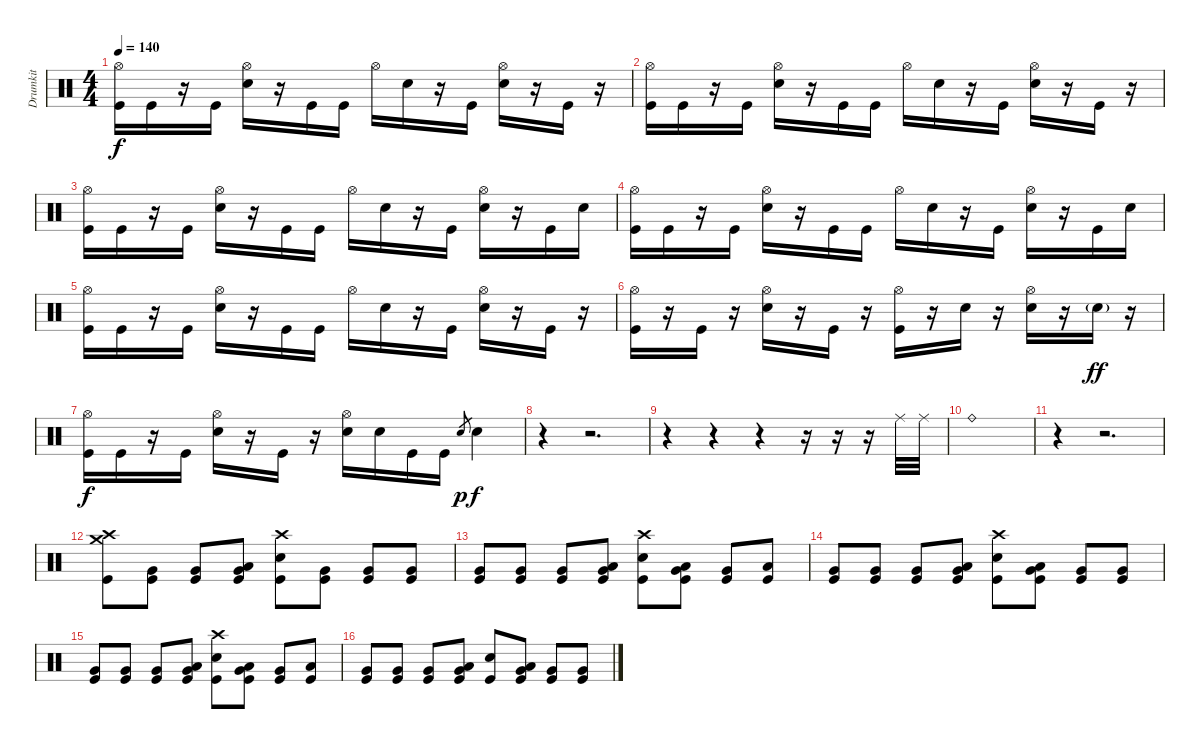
\track ("Drumkit" "Drumkit") {instrument percussion}
\staff {score}
\articulation defaults
\ts (4 4)
\tempo 140
\clef neutral
\ks c
("Hi-Hat (open)" "Kick (hit)").16{dy f} "Kick (hit)".16 r.16 "Kick (hit)".16 ("Hi-Hat (open)" "Snare (hit) 2").16 r.16 "Kick (hit)".16 "Kick (hit)".16 "Hi-Hat (open)".16 "Snare (hit) 2".16 r.16 "Kick (hit)".16 ("Hi-Hat (open)" "Snare (hit) 2").16 r.16 "Kick (hit)".16 r.16 |
("Hi-Hat (open)" "Kick (hit)").16 "Kick (hit)".16 r.16 "Kick (hit)".16 ("Hi-Hat (open)" "Snare (hit) 2").16 r.16 "Kick (hit)".16 "Kick (hit)".16 "Hi-Hat (open)".16 "Snare (hit) 2".16 r.16 "Kick (hit)".16 ("Hi-Hat (open)" "Snare (hit) 2").16 r.16 "Kick (hit)".16 r.16 |
("Hi-Hat (open)" "Kick (hit)").16 "Kick (hit)".16 r.16 "Kick (hit)".16 ("Hi-Hat (open)" "Snare (hit) 2").16 r.16 "Kick (hit)".16 "Kick (hit)".16 "Hi-Hat (open)".16 "Snare (hit) 2".16 r.16 "Kick (hit)".16 ("Hi-Hat (open)" "Snare (hit) 2").16 r.16 "Kick (hit)".16 "Snare (hit) 2".16 |
("Hi-Hat (open)" "Kick (hit)").16 "Kick (hit)".16 r.16 "Kick (hit)".16 ("Hi-Hat (open)" "Snare (hit) 2").16 r.16 "Kick (hit)".16 "Kick (hit)".16 "Hi-Hat (open)".16 "Snare (hit) 2".16 r.16 "Kick (hit)".16 ("Hi-Hat (open)" "Snare (hit) 2").16 r.16 "Kick (hit)".16 "Snare (hit) 2".16 |
("Hi-Hat (open)" "Kick (hit)").16 "Kick (hit)".16 r.16 "Kick (hit)".16 ("Hi-Hat (open)" "Snare (hit) 2").16 r.16 "Kick (hit)".16 "Kick (hit)".16 "Hi-Hat (open)".16 "Snare (hit) 2".16 r.16 "Kick (hit)".16 ("Hi-Hat (open)" "Snare (hit) 2").16 r.16 "Kick (hit)".16 r.16 |
("Hi-Hat (open)" "Kick (hit)").16 r.16 "Kick (hit)".16 r.16 ("Hi-Hat (open)" "Snare (hit) 2").16 r.16 "Kick (hit)".16 r.16 ("Hi-Hat (open)" "Kick (hit)").16 r.16 "Snare (hit) 2".16 r.16 ("Hi-Hat (open)" "Snare (hit) 2").16 r.16 "Snare (hit) 2"{g}.16{dy ff} r.16 |
("Hi-Hat (open)" "Kick (hit)").16{dy f} "Kick (hit)".16 r.16 "Kick (hit)".16 ("Hi-Hat (open)" "Snare (hit) 2").16 r.16 "Kick (hit)".16 r.16 ("Hi-Hat (open)" "Snare (hit) 2").16 "Snare (hit) 2".16 "Kick (hit)".16 "Kick (hit)".16 "Snare (hit)".8{gr dy p} "Snare (hit) 2".4{dy f} |
r.4 r.2{d} |
r.4 r.4 r.4 r.16 r.16 r.16 "Ride (middle)".32 "Ride (middle)".32 |
"Ride (bell)".1 |
r.4 r.2{d} |
("Crash high (hit)" "Crash medium (hit)" "Kick (hit)").8 ("Very Low Tom (hit)" "Kick (hit)").8 ("Very Low Tom (hit)" "Kick (hit)").8 ("Low Tom (hit)" "Very Low Tom (hit)" "Kick (hit)").8 ("Crash high (hit)" "Snare (hit) 2" "Kick (hit)").8 ("Very Low Tom (hit)" "Kick (hit)").8 ("Very Low Tom (hit)" "Kick (hit)").8 ("Very Low Tom (hit)" "Kick (hit)").8 |
("Very Low Tom (hit)" "Kick (hit)").8 ("Very Low Tom (hit)" "Kick (hit)").8 ("Very Low Tom (hit)" "Kick (hit)").8 ("Low Tom (hit)" "Very Low Tom (hit)" "Kick (hit)").8 ("Crash high (hit)" "Snare (hit) 2" "Kick (hit)").8 ("Low Tom (hit)" "Very Low Tom (hit)" "Kick (hit)").8 ("Very Low Tom (hit)" "Kick (hit)").8 ("Low Tom (hit)" "Kick (hit)").8 |
("Very Low Tom (hit)" "Kick (hit)").8 ("Very Low Tom (hit)" "Kick (hit)").8 ("Very Low Tom (hit)" "Kick (hit)").8 ("Low Tom (hit)" "Very Low Tom (hit)" "Kick (hit)").8 ("Crash high (hit)" "Snare (hit) 2" "Kick (hit)").8 ("Low Tom (hit)" "Very Low Tom (hit)" "Kick (hit)").8 ("Very Low Tom (hit)" "Kick (hit)").8 ("Very Low Tom (hit)" "Kick (hit)").8 |
("Very Low Tom (hit)" "Kick (hit)").8 ("Very Low Tom (hit)" "Kick (hit)").8 ("Very Low Tom (hit)" "Kick (hit)").8 ("Low Tom (hit)" "Very Low Tom (hit)" "Kick (hit)").8 ("Crash high (hit)" "Snare (hit) 2" "Kick (hit)").8 ("Low Tom (hit)" "Very Low Tom (hit)" "Kick (hit)").8 ("Very Low Tom (hit)" "Kick (hit)").8 ("Low Tom (hit)" "Kick (hit)").8 |
("Very Low Tom (hit)" "Kick (hit)").8 ("Very Low Tom (hit)" "Kick (hit)").8 ("Very Low Tom (hit)" "Kick (hit)").8 ("Low Tom (hit)" "Very Low Tom (hit)" "Kick (hit)").8 ("Snare (hit) 2" "Kick (hit)").8 ("Low Tom (hit)" "Very Low Tom (hit)" "Kick (hit)").8 ("Very Low Tom (hit)" "Kick (hit)").8 ("Very Low Tom (hit)" "Kick (hit)").8
